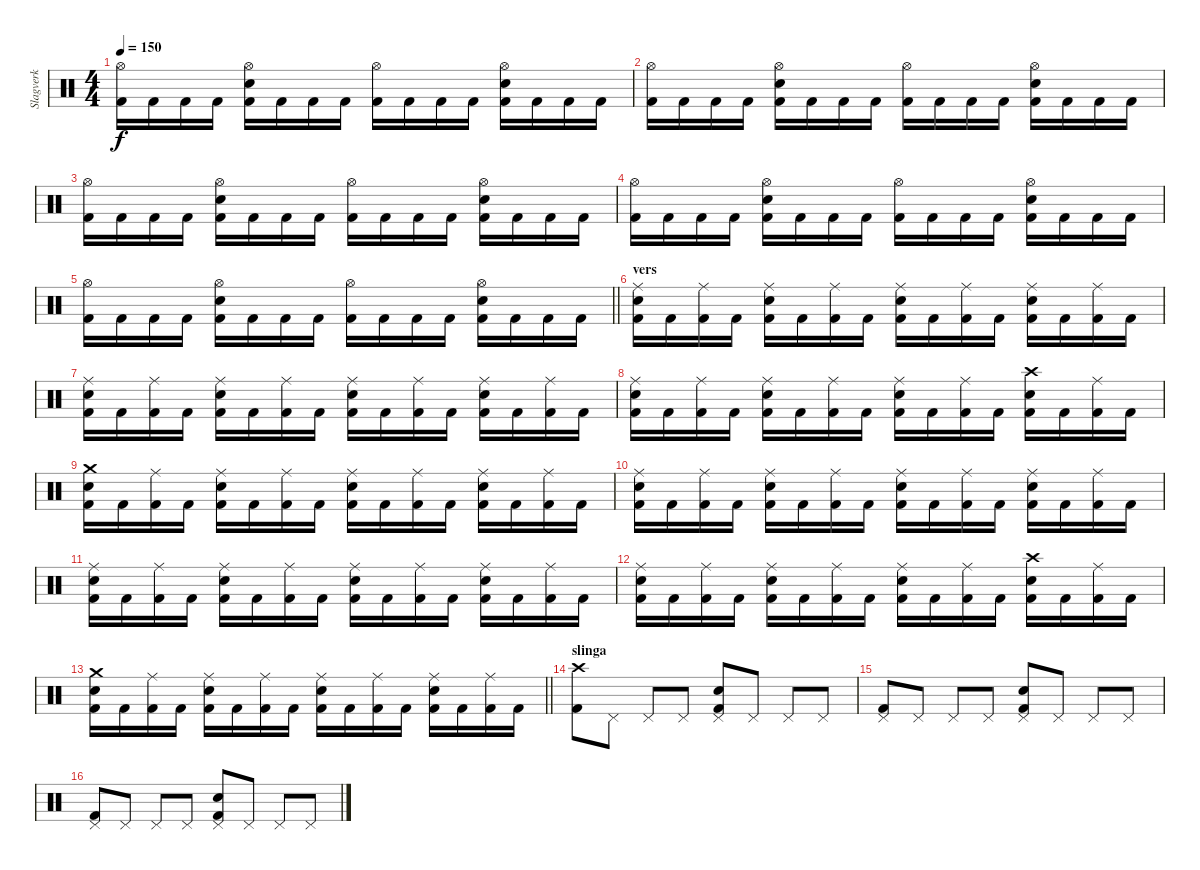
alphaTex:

\track ("Slagverk" "Slagverk") {instrument percussion}
\staff {score}
\articulation defaults
\ts (4 4)
\tempo 150
\clef neutral
\ks c
("Hi-Hat (open)" "Kick (hit) 2").16{dy f} "Kick (hit) 2".16 "Kick (hit) 2".16 "Kick (hit) 2".16 ("Hi-Hat (open)" "Electric Snare (hit)" "Kick (hit) 2").16 "Kick (hit) 2".16 "Kick (hit) 2".16 "Kick (hit) 2".16 ("Hi-Hat (open)" "Kick (hit) 2").16 "Kick (hit) 2".16 "Kick (hit) 2".16 "Kick (hit) 2".16 ("Hi-Hat (open)" "Electric Snare (hit)" "Kick (hit) 2").16 "Kick (hit) 2".16 "Kick (hit) 2".16 "Kick (hit) 2".16 |
("Hi-Hat (open)" "Kick (hit) 2").16 "Kick (hit) 2".16 "Kick (hit) 2".16 "Kick (hit) 2".16 ("Hi-Hat (open)" "Electric Snare (hit)" "Kick (hit) 2").16 "Kick (hit) 2".16 "Kick (hit) 2".16 "Kick (hit) 2".16 ("Hi-Hat (open)" "Kick (hit) 2").16 "Kick (hit) 2".16 "Kick (hit) 2".16 "Kick (hit) 2".16 ("Hi-Hat (open)" "Electric Snare (hit)" "Kick (hit) 2").16 "Kick (hit) 2".16 "Kick (hit) 2".16 "Kick (hit) 2".16 |
("Hi-Hat (open)" "Kick (hit) 2").16 "Kick (hit) 2".16 "Kick (hit) 2".16 "Kick (hit) 2".16 ("Hi-Hat (open)" "Electric Snare (hit)" "Kick (hit) 2").16 "Kick (hit) 2".16 "Kick (hit) 2".16 "Kick (hit) 2".16 ("Hi-Hat (open)" "Kick (hit) 2").16 "Kick (hit) 2".16 "Kick (hit) 2".16 "Kick (hit) 2".16 ("Hi-Hat (open)" "Electric Snare (hit)" "Kick (hit) 2").16 "Kick (hit) 2".16 "Kick (hit) 2".16 "Kick (hit) 2".16 |
("Hi-Hat (open)" "Kick (hit) 2").16 "Kick (hit) 2".16 "Kick (hit) 2".16 "Kick (hit) 2".16 ("Hi-Hat (open)" "Electric Snare (hit)" "Kick (hit) 2").16 "Kick (hit) 2".16 "Kick (hit) 2".16 "Kick (hit) 2".16 ("Hi-Hat (open)" "Kick (hit) 2").16 "Kick (hit) 2".16 "Kick (hit) 2".16 "Kick (hit) 2".16 ("Hi-Hat (open)" "Electric Snare (hit)" "Kick (hit) 2").16 "Kick (hit) 2".16 "Kick (hit) 2".16 "Kick (hit) 2".16 |
\barLineRight lightlight
("Hi-Hat (open)" "Kick (hit) 2").16 "Kick (hit) 2".16 "Kick (hit) 2".16 "Kick (hit) 2".16 ("Hi-Hat (open)" "Electric Snare (hit)" "Kick (hit) 2").16 "Kick (hit) 2".16 "Kick (hit) 2".16 "Kick (hit) 2".16 ("Hi-Hat (open)" "Kick (hit) 2").16 "Kick (hit) 2".16 "Kick (hit) 2".16 "Kick (hit) 2".16 ("Hi-Hat (open)" "Electric Snare (hit)" "Kick (hit) 2").16 "Kick (hit) 2".16 "Kick (hit) 2".16 "Kick (hit) 2".16 |
\section ("" "vers")
("Ride (middle)" "Electric Snare (hit)" "Kick (hit) 2").16 "Kick (hit) 2".16 ("Ride (middle)" "Kick (hit) 2").16 "Kick (hit) 2".16 ("Ride (middle)" "Electric Snare (hit)" "Kick (hit) 2").16 "Kick (hit) 2".16 ("Ride (middle)" "Kick (hit) 2").16 "Kick (hit) 2".16 ("Ride (middle)" "Electric Snare (hit)" "Kick (hit) 2").16 "Kick (hit) 2".16 ("Ride (middle)" "Kick (hit) 2").16 "Kick (hit) 2".16 ("Ride (middle)" "Electric Snare (hit)" "Kick (hit) 2").16 "Kick (hit) 2".16 ("Ride (middle)" "Kick (hit) 2").16 "Kick (hit) 2".16 |
("Ride (middle)" "Electric Snare (hit)" "Kick (hit) 2").16 "Kick (hit) 2".16 ("Ride (middle)" "Kick (hit) 2").16 "Kick (hit) 2".16 ("Ride (middle)" "Electric Snare (hit)" "Kick (hit) 2").16 "Kick (hit) 2".16 ("Ride (middle)" "Kick (hit) 2").16 "Kick (hit) 2".16 ("Ride (middle)" "Electric Snare (hit)" "Kick (hit) 2").16 "Kick (hit) 2".16 ("Ride (middle)" "Kick (hit) 2").16 "Kick (hit) 2".16 ("Ride (middle)" "Electric Snare (hit)" "Kick (hit) 2").16 "Kick (hit) 2".16 ("Ride (middle)" "Kick (hit) 2").16 "Kick (hit) 2".16 |
("Ride (middle)" "Electric Snare (hit)" "Kick (hit) 2").16 "Kick (hit) 2".16 ("Ride (middle)" "Kick (hit) 2").16 "Kick (hit) 2".16 ("Ride (middle)" "Electric Snare (hit)" "Kick (hit) 2").16 "Kick (hit) 2".16 ("Ride (middle)" "Kick (hit) 2").16 "Kick (hit) 2".16 ("Ride (middle)" "Electric Snare (hit)" "Kick (hit) 2").16 "Kick (hit) 2".16 ("Ride (middle)" "Kick (hit) 2").16 "Kick (hit) 2".16 ("Crash high (hit)" "Electric Snare (hit)" "Kick (hit) 2").16 "Kick (hit) 2".16 ("Ride (middle)" "Kick (hit) 2").16 "Kick (hit) 2".16 |
("Crash medium (hit)" "Electric Snare (hit)" "Kick (hit) 2").16 "Kick (hit) 2".16 ("Ride (middle)" "Kick (hit) 2").16 "Kick (hit) 2".16 ("Ride (middle)" "Electric Snare (hit)" "Kick (hit) 2").16 "Kick (hit) 2".16 ("Ride (middle)" "Kick (hit) 2").16 "Kick (hit) 2".16 ("Ride (middle)" "Electric Snare (hit)" "Kick (hit) 2").16 "Kick (hit) 2".16 ("Ride (middle)" "Kick (hit) 2").16 "Kick (hit) 2".16 ("Ride (middle)" "Electric Snare (hit)" "Kick (hit) 2").16 "Kick (hit) 2".16 ("Ride (middle)" "Kick (hit) 2").16 "Kick (hit) 2".16 |
("Ride (middle)" "Electric Snare (hit)" "Kick (hit) 2").16 "Kick (hit) 2".16 ("Ride (middle)" "Kick (hit) 2").16 "Kick (hit) 2".16 ("Ride (middle)" "Electric Snare (hit)" "Kick (hit) 2").16 "Kick (hit) 2".16 ("Ride (middle)" "Kick (hit) 2").16 "Kick (hit) 2".16 ("Ride (middle)" "Electric Snare (hit)" "Kick (hit) 2").16 "Kick (hit) 2".16 ("Ride (middle)" "Kick (hit) 2").16 "Kick (hit) 2".16 ("Ride (middle)" "Electric Snare (hit)" "Kick (hit) 2").16 "Kick (hit) 2".16 ("Ride (middle)" "Kick (hit) 2").16 "Kick (hit) 2".16 |
("Ride (middle)" "Electric Snare (hit)" "Kick (hit) 2").16 "Kick (hit) 2".16 ("Ride (middle)" "Kick (hit) 2").16 "Kick (hit) 2".16 ("Ride (middle)" "Electric Snare (hit)" "Kick (hit) 2").16 "Kick (hit) 2".16 ("Ride (middle)" "Kick (hit) 2").16 "Kick (hit) 2".16 ("Ride (middle)" "Electric Snare (hit)" "Kick (hit) 2").16 "Kick (hit) 2".16 ("Ride (middle)" "Kick (hit) 2").16 "Kick (hit) 2".16 ("Ride (middle)" "Electric Snare (hit)" "Kick (hit) 2").16 "Kick (hit) 2".16 ("Ride (middle)" "Kick (hit) 2").16 "Kick (hit) 2".16 |
("Ride (middle)" "Electric Snare (hit)" "Kick (hit) 2").16 "Kick (hit) 2".16 ("Ride (middle)" "Kick (hit) 2").16 "Kick (hit) 2".16 ("Ride (middle)" "Electric Snare (hit)" "Kick (hit) 2").16 "Kick (hit) 2".16 ("Ride (middle)" "Kick (hit) 2").16 "Kick (hit) 2".16 ("Ride (middle)" "Electric Snare (hit)" "Kick (hit) 2").16 "Kick (hit) 2".16 ("Ride (middle)" "Kick (hit) 2").16 "Kick (hit) 2".16 ("Crash high (hit)" "Electric Snare (hit)" "Kick (hit) 2").16 "Kick (hit) 2".16 ("Ride (middle)" "Kick (hit) 2").16 "Kick (hit) 2".16 |
\barLineRight lightlight
("Crash medium (hit)" "Electric Snare (hit)" "Kick (hit) 2").16 "Kick (hit) 2".16 ("Ride (middle)" "Kick (hit) 2").16 "Kick (hit) 2".16 ("Ride (middle)" "Electric Snare (hit)" "Kick (hit) 2").16 "Kick (hit) 2".16 ("Ride (middle)" "Kick (hit) 2").16 "Kick (hit) 2".16 ("Ride (middle)" "Electric Snare (hit)" "Kick (hit) 2").16 "Kick (hit) 2".16 ("Ride (middle)" "Kick (hit) 2").16 "Kick (hit) 2".16 ("Ride (middle)" "Electric Snare (hit)" "Kick (hit) 2").16 "Kick (hit) 2".16 ("Ride (middle)" "Kick (hit) 2").16 "Kick (hit) 2".16 |
\section ("" "slinga")
("Crash high (hit)" "Kick (hit) 2").8 "Pedal Hi-Hat (hit)".8 "Pedal Hi-Hat (hit)".8 "Pedal Hi-Hat (hit)".8 ("Pedal Hi-Hat (hit)" "Electric Snare (hit)" "Kick (hit) 2").8 "Pedal Hi-Hat (hit)".8 "Pedal Hi-Hat (hit)".8 "Pedal Hi-Hat (hit)".8 |
("Pedal Hi-Hat (hit)" "Kick (hit) 2").8 "Pedal Hi-Hat (hit)".8 "Pedal Hi-Hat (hit)".8 "Pedal Hi-Hat (hit)".8 ("Pedal Hi-Hat (hit)" "Electric Snare (hit)" "Kick (hit) 2").8 "Pedal Hi-Hat (hit)".8 "Pedal Hi-Hat (hit)".8 "Pedal Hi-Hat (hit)".8 |
("Pedal Hi-Hat (hit)" "Kick (hit) 2").8 "Pedal Hi-Hat (hit)".8 "Pedal Hi-Hat (hit)".8 "Pedal Hi-Hat (hit)".8 ("Pedal Hi-Hat (hit)" "Electric Snare (hit)" "Kick (hit) 2").8 "Pedal Hi-Hat (hit)".8 "Pedal Hi-Hat (hit)".8 "Pedal Hi-Hat (hit)".8
